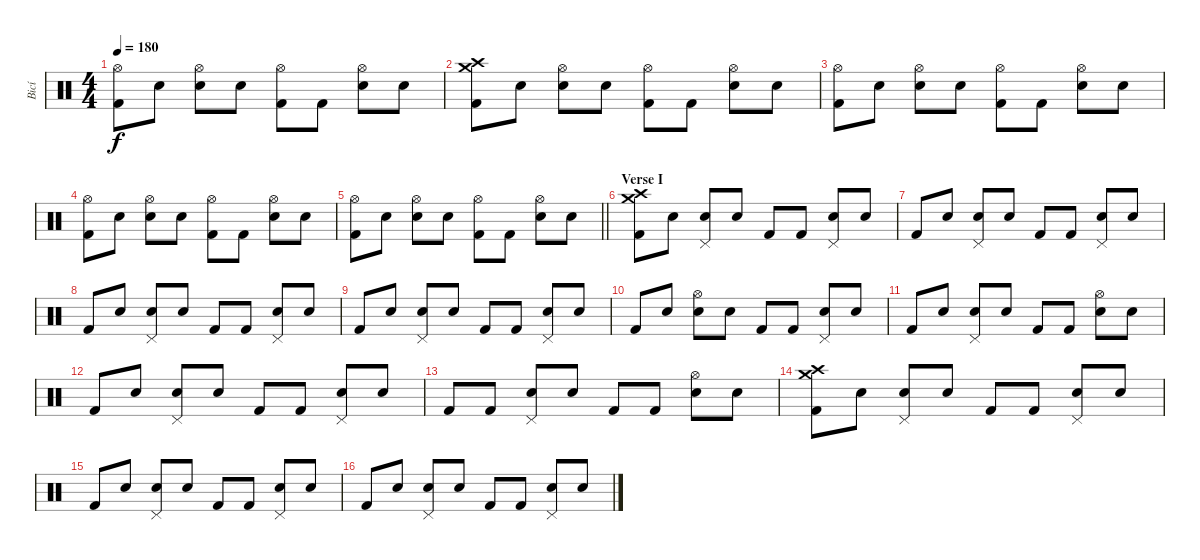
\track ("Bicí" "Bicí") {instrument percussion}
\staff {score}
\articulation defaults
\ts (4 4)
\tempo 180
\clef neutral
\ks c
("Hi-Hat (open)" "Kick (hit) 2").8{dy f} "Snare (hit)".8 ("Hi-Hat (open)" "Electric Snare (hit)").8 "Snare (hit)".8 ("Hi-Hat (open)" "Kick (hit) 2").8 "Kick (hit) 2".8 ("Hi-Hat (open)" "Electric Snare (hit)").8 "Snare (hit)".8 |
("Crash medium (hit)" "Crash high (hit)" "Kick (hit) 2").8 "Snare (hit)".8 ("Hi-Hat (open)" "Electric Snare (hit)").8 "Snare (hit)".8 ("Hi-Hat (open)" "Kick (hit) 2").8 "Kick (hit) 2".8 ("Hi-Hat (open)" "Electric Snare (hit)").8 "Snare (hit)".8 |
("Hi-Hat (open)" "Kick (hit) 2").8 "Snare (hit)".8 ("Hi-Hat (open)" "Electric Snare (hit)").8 "Snare (hit)".8 ("Hi-Hat (open)" "Kick (hit) 2").8 "Kick (hit) 2".8 ("Hi-Hat (open)" "Electric Snare (hit)").8 "Snare (hit)".8 |
("Hi-Hat (open)" "Kick (hit) 2").8 "Snare (hit)".8 ("Hi-Hat (open)" "Electric Snare (hit)").8 "Snare (hit)".8 ("Hi-Hat (open)" "Kick (hit) 2").8 "Kick (hit) 2".8 ("Hi-Hat (open)" "Electric Snare (hit)").8 "Snare (hit)".8 |
\barLineRight lightlight
("Hi-Hat (open)" "Kick (hit) 2").8 "Snare (hit)".8 ("Hi-Hat (open)" "Electric Snare (hit)").8 "Snare (hit)".8 ("Hi-Hat (open)" "Kick (hit) 2").8 "Kick (hit) 2".8 ("Hi-Hat (open)" "Electric Snare (hit)").8 "Snare (hit)".8 |
\section ("" "Verse I")
("Crash medium (hit)" "Crash high (hit)" "Kick (hit) 2").8 "Snare (hit)".8 ("Pedal Hi-Hat (hit)" "Electric Snare (hit)").8 "Snare (hit)".8 "Kick (hit) 2".8 "Kick (hit) 2".8 ("Pedal Hi-Hat (hit)" "Electric Snare (hit)").8 "Snare (hit)".8 |
"Kick (hit) 2".8 "Snare (hit)".8 ("Pedal Hi-Hat (hit)" "Electric Snare (hit)").8 "Snare (hit)".8 "Kick (hit) 2".8 "Kick (hit) 2".8 ("Pedal Hi-Hat (hit)" "Electric Snare (hit)").8 "Snare (hit)".8 |
"Kick (hit) 2".8 "Snare (hit)".8 ("Pedal Hi-Hat (hit)" "Electric Snare (hit)").8 "Snare (hit)".8 "Kick (hit) 2".8 "Kick (hit) 2".8 ("Pedal Hi-Hat (hit)" "Electric Snare (hit)").8 "Snare (hit)".8 |
"Kick (hit) 2".8 "Snare (hit)".8 ("Pedal Hi-Hat (hit)" "Electric Snare (hit)").8 "Snare (hit)".8 "Kick (hit) 2".8 "Kick (hit) 2".8 ("Pedal Hi-Hat (hit)" "Electric Snare (hit)").8 "Snare (hit)".8 |
"Kick (hit) 2".8 "Snare (hit)".8 ("Hi-Hat (open)" "Electric Snare (hit)").8 "Snare (hit)".8 "Kick (hit) 2".8 "Kick (hit) 2".8 ("Pedal Hi-Hat (hit)" "Electric Snare (hit)").8 "Snare (hit)".8 |
"Kick (hit) 2".8 "Snare (hit)".8 ("Pedal Hi-Hat (hit)" "Electric Snare (hit)").8 "Snare (hit)".8 "Kick (hit) 2".8 "Kick (hit) 2".8 ("Hi-Hat (open)" "Electric Snare (hit)").8 "Snare (hit)".8 |
"Kick (hit) 2".8 "Snare (hit)".8 ("Pedal Hi-Hat (hit)" "Electric Snare (hit)").8 "Snare (hit)".8 "Kick (hit) 2".8 "Kick (hit) 2".8 ("Pedal Hi-Hat (hit)" "Electric Snare (hit)").8 "Snare (hit)".8 |
"Kick (hit) 2".8 "Kick (hit) 2".8 ("Pedal Hi-Hat (hit)" "Electric Snare (hit)").8 "Snare (hit)".8 "Kick (hit) 2".8 "Kick (hit) 2".8 ("Hi-Hat (open)" "Electric Snare (hit)").8 "Snare (hit)".8 |
("Crash medium (hit)" "Crash high (hit)" "Kick (hit) 2").8 "Snare (hit)".8 ("Pedal Hi-Hat (hit)" "Electric Snare (hit)").8 "Snare (hit)".8 "Kick (hit) 2".8 "Kick (hit) 2".8 ("Pedal Hi-Hat (hit)" "Electric Snare (hit)").8 "Snare (hit)".8 |
"Kick (hit) 2".8 "Snare (hit)".8 ("Pedal Hi-Hat (hit)" "Electric Snare (hit)").8 "Snare (hit)".8 "Kick (hit) 2".8 "Kick (hit) 2".8 ("Pedal Hi-Hat (hit)" "Electric Snare (hit)").8 "Snare (hit)".8 |
"Kick (hit) 2".8 "Snare (hit)".8 ("Pedal Hi-Hat (hit)" "Electric Snare (hit)").8 "Snare (hit)".8 "Kick (hit) 2".8 "Kick (hit) 2".8 ("Pedal Hi-Hat (hit)" "Electric Snare (hit)").8 "Snare (hit)".8
